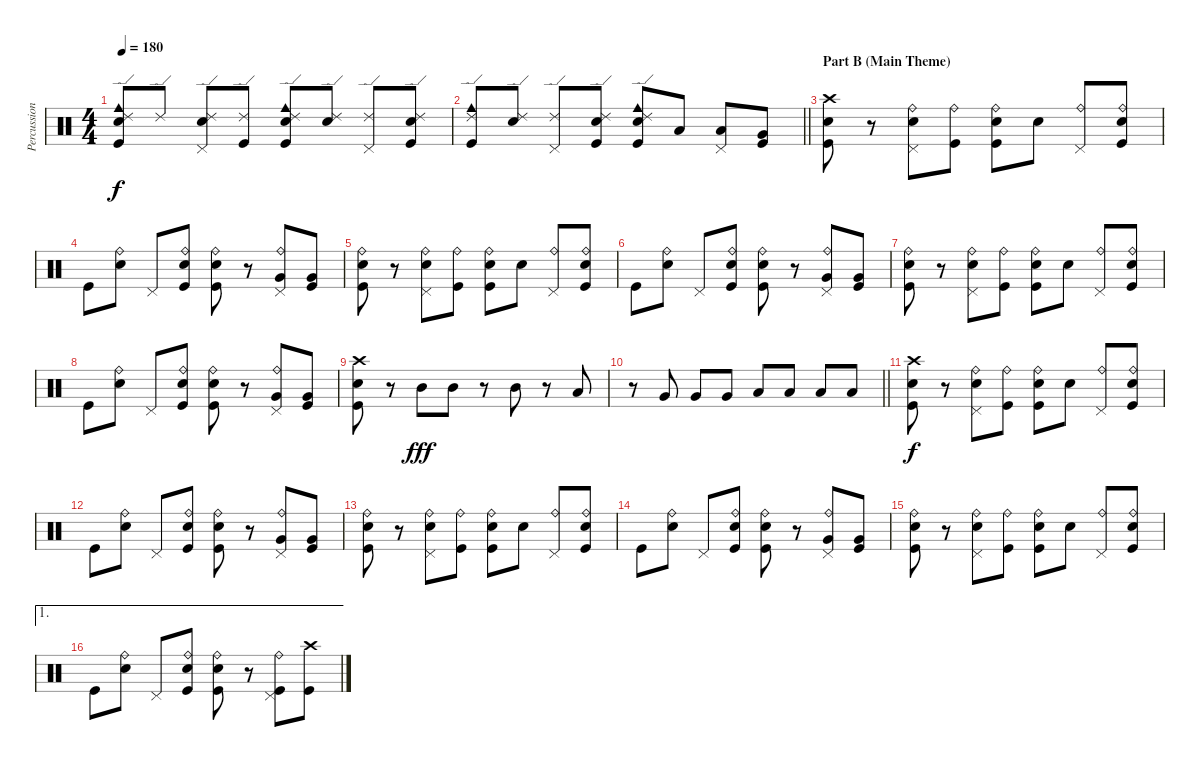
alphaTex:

\track ("Percussion" "Percussion") {instrument percussion}
\staff {score}
\articulation defaults
\ts (4 4)
\tempo 180
\clef neutral
\ks c
("Ride (edge) 2" "Cowbell medium (hit)" "Electric Snare (hit)" "Kick (hit)").8{dy f} "Ride (edge) 2".8 ("Ride (edge) 2" "Pedal Hi-Hat (hit)" "Electric Snare (hit)").8 ("Ride (edge) 2" "Kick (hit)").8 ("Ride (edge) 2" "Cowbell medium (hit)" "Electric Snare (hit)" "Kick (hit)").8 ("Ride (edge) 2" "Electric Snare (hit)").8 ("Ride (edge) 2" "Pedal Hi-Hat (hit)").8 ("Ride (edge) 2" "Electric Snare (hit)" "Kick (hit)").8 |
\barLineRight lightlight
("Ride (edge) 2" "Cowbell medium (hit)" "Kick (hit)").8 ("Ride (edge) 2" "Electric Snare (hit)").8 ("Ride (edge) 2" "Pedal Hi-Hat (hit)").8 ("Ride (edge) 2" "Electric Snare (hit)" "Kick (hit)").8 ("Ride (edge) 2" "Cowbell medium (hit)" "Electric Snare (hit)" "Kick (hit)").8 "Low Tom (hit)".8 ("Pedal Hi-Hat (hit)" "Low Tom (hit)").8 ("Very Low Tom (hit)" "Kick (hit)").8 |
\section ("" "Part B (Main Theme)")
("Crash high (hit)" "Electric Snare (hit)" "Kick (hit)").8 r.8 ("Ride (bell)" "Pedal Hi-Hat (hit)" "Electric Snare (hit)").8 ("Ride (bell)" "Kick (hit)").8 ("Ride (bell)" "Electric Snare (hit)" "Kick (hit)").8 "Electric Snare (hit)".8 ("Ride (bell)" "Pedal Hi-Hat (hit)").8 ("Ride (bell)" "Electric Snare (hit)" "Kick (hit)").8 |
"Kick (hit)".8 ("Ride (bell)" "Electric Snare (hit)").8 "Pedal Hi-Hat (hit)".8 ("Ride (bell)" "Electric Snare (hit)" "Kick (hit)").8 ("Ride (bell)" "Electric Snare (hit)" "Kick (hit)").8 r.8 ("Ride (bell)" "Pedal Hi-Hat (hit)" "Very Low Tom (hit)").8 ("Very Low Tom (hit)" "Kick (hit)").8 |
("Ride (bell)" "Electric Snare (hit)" "Kick (hit)").8 r.8 ("Ride (bell)" "Pedal Hi-Hat (hit)" "Electric Snare (hit)").8 ("Ride (bell)" "Kick (hit)").8 ("Ride (bell)" "Electric Snare (hit)" "Kick (hit)").8 "Electric Snare (hit)".8 ("Ride (bell)" "Pedal Hi-Hat (hit)").8 ("Ride (bell)" "Electric Snare (hit)" "Kick (hit)").8 |
"Kick (hit)".8 ("Ride (bell)" "Electric Snare (hit)").8 "Pedal Hi-Hat (hit)".8 ("Ride (bell)" "Electric Snare (hit)" "Kick (hit)").8 ("Ride (bell)" "Electric Snare (hit)" "Kick (hit)").8 r.8 ("Ride (bell)" "Pedal Hi-Hat (hit)" "Very Low Tom (hit)").8 ("Very Low Tom (hit)" "Kick (hit)").8 |
("Ride (bell)" "Electric Snare (hit)" "Kick (hit)").8 r.8 ("Ride (bell)" "Pedal Hi-Hat (hit)" "Electric Snare (hit)").8 ("Ride (bell)" "Kick (hit)").8 ("Ride (bell)" "Electric Snare (hit)" "Kick (hit)").8 "Electric Snare (hit)".8 ("Ride (bell)" "Pedal Hi-Hat (hit)").8 ("Ride (bell)" "Electric Snare (hit)" "Kick (hit)").8 |
"Kick (hit)".8 ("Ride (bell)" "Electric Snare (hit)").8 "Pedal Hi-Hat (hit)".8 ("Ride (bell)" "Electric Snare (hit)" "Kick (hit)").8 ("Ride (bell)" "Electric Snare (hit)" "Kick (hit)").8 r.8 ("Ride (bell)" "Pedal Hi-Hat (hit)" "Very Low Tom (hit)").8 ("Very Low Tom (hit)" "Kick (hit)").8 |
("Crash high (hit)" "Electric Snare (hit)" "Kick (hit)").8 r.8 "Mid Tom (hit)".8{dy fff} "Mid Tom (hit)".8 r.8 "Mid Tom (hit)".8 r.8 "Low Tom (hit)".8 |
\barLineRight lightlight
r.8 "Very Low Tom (hit)".8 "Very Low Tom (hit)".8 "Very Low Tom (hit)".8 "Low Floor Tom (hit)".8 "Low Floor Tom (hit)".8 "Low Floor Tom (hit)".8 "Low Floor Tom (hit)".8 |
("Crash high (hit)" "Electric Snare (hit)" "Kick (hit)").8{dy f} r.8 ("Ride (bell)" "Pedal Hi-Hat (hit)" "Electric Snare (hit)").8 ("Ride (bell)" "Kick (hit)").8 ("Ride (bell)" "Electric Snare (hit)" "Kick (hit)").8 "Electric Snare (hit)".8 ("Ride (bell)" "Pedal Hi-Hat (hit)").8 ("Ride (bell)" "Electric Snare (hit)" "Kick (hit)").8 |
"Kick (hit)".8 ("Ride (bell)" "Electric Snare (hit)").8 "Pedal Hi-Hat (hit)".8 ("Ride (bell)" "Electric Snare (hit)" "Kick (hit)").8 ("Ride (bell)" "Electric Snare (hit)" "Kick (hit)").8 r.8 ("Ride (bell)" "Pedal Hi-Hat (hit)" "Very Low Tom (hit)").8 ("Very Low Tom (hit)" "Kick (hit)").8 |
("Ride (bell)" "Electric Snare (hit)" "Kick (hit)").8 r.8 ("Ride (bell)" "Pedal Hi-Hat (hit)" "Electric Snare (hit)").8 ("Ride (bell)" "Kick (hit)").8 ("Ride (bell)" "Electric Snare (hit)" "Kick (hit)").8 "Electric Snare (hit)".8 ("Ride (bell)" "Pedal Hi-Hat (hit)").8 ("Ride (bell)" "Electric Snare (hit)" "Kick (hit)").8 |
"Kick (hit)".8 ("Ride (bell)" "Electric Snare (hit)").8 "Pedal Hi-Hat (hit)".8 ("Ride (bell)" "Electric Snare (hit)" "Kick (hit)").8 ("Ride (bell)" "Electric Snare (hit)" "Kick (hit)").8 r.8 ("Ride (bell)" "Pedal Hi-Hat (hit)" "Very Low Tom (hit)").8 ("Very Low Tom (hit)" "Kick (hit)").8 |
("Ride (bell)" "Electric Snare (hit)" "Kick (hit)").8 r.8 ("Ride (bell)" "Pedal Hi-Hat (hit)" "Electric Snare (hit)").8 ("Ride (bell)" "Kick (hit)").8 ("Ride (bell)" "Electric Snare (hit)" "Kick (hit)").8 "Electric Snare (hit)".8 ("Ride (bell)" "Pedal Hi-Hat (hit)").8 ("Ride (bell)" "Electric Snare (hit)" "Kick (hit)").8 |
\ae 1 "Kick (hit)".8
("Ride (bell)" "Electric Snare (hit)").8 "Pedal Hi-Hat (hit)".8 ("Ride (bell)" "Electric Snare (hit)" "Kick (hit)").8 ("Ride (bell)" "Electric Snare (hit)" "Kick (hit)").8 r.8 ("Ride (bell)" "Pedal Hi-Hat (hit)" "Kick (hit)").8 ("Crash high (hit)" "Kick (hit)").8
